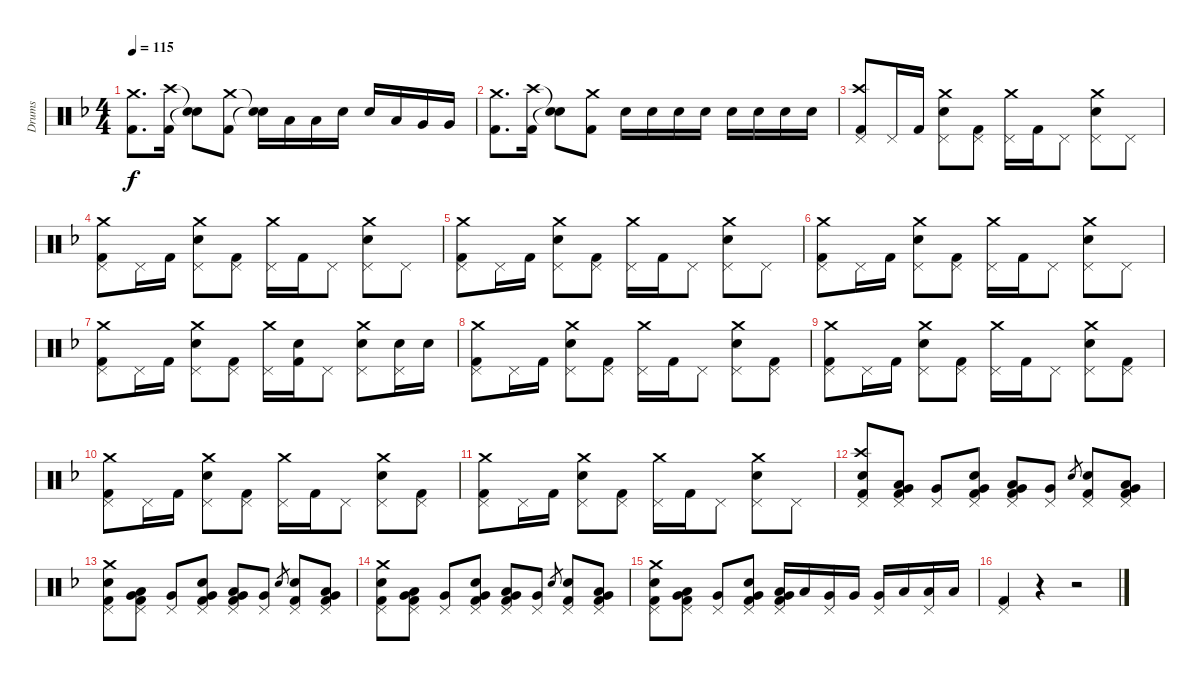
\track ("Drums" "Drums") {instrument percussion}
\staff {score}
\articulation defaults
\ts (4 4)
\tempo 115
\clef neutral
\ks dminor
("Crash medium (hit)" "Kick (hit) 2").8{d dy f} ("Crash high (hit)" "Kick (hit) 2").16 ("Snare (hit)"{t} "Snare (hit)"{t}).8 ("Crash medium (hit)" "Kick (hit) 2").8 ("Snare (hit)"{t} "Snare (hit)"{t}).16 "Low Tom (hit)".16 "Low Tom (hit)".16 "Electric Snare (hit)".16 "Electric Snare (hit)".16 "Low Tom (hit)".16 "Very Low Tom (hit)".16 "Very Low Tom (hit)".16 |
("Crash medium (hit)" "Kick (hit) 2").8{d} ("Crash high (hit)" "Kick (hit) 2").16 ("Snare (hit)"{t} "Snare (hit)"{t}).8 ("Crash medium (hit)" "Kick (hit) 2").8 "Electric Snare (hit)".16 "Electric Snare (hit)".16 "Electric Snare (hit)".16 "Electric Snare (hit)".16 "Electric Snare (hit)".16 "Electric Snare (hit)".16 "Electric Snare (hit)".16 "Electric Snare (hit)".16 |
("Crash high (hit)" "Pedal Hi-Hat (hit)" "Kick (hit) 2").8 "Pedal Hi-Hat (hit)".16 "Kick (hit) 2".16 ("Crash medium (hit)" "Electric Snare (hit)" "Pedal Hi-Hat (hit)").8 ("Pedal Hi-Hat (hit)" "Kick (hit) 2").8 ("Crash medium (hit)" "Pedal Hi-Hat (hit)").16 "Kick (hit) 2".16 "Pedal Hi-Hat (hit)".8 ("Crash medium (hit)" "Electric Snare (hit)" "Pedal Hi-Hat (hit)").8 "Pedal Hi-Hat (hit)".8 |
("Crash medium (hit)" "Pedal Hi-Hat (hit)" "Kick (hit) 2").8 "Pedal Hi-Hat (hit)".16 "Kick (hit) 2".16 ("Crash medium (hit)" "Electric Snare (hit)" "Pedal Hi-Hat (hit)").8 ("Pedal Hi-Hat (hit)" "Kick (hit) 2").8 ("Crash medium (hit)" "Pedal Hi-Hat (hit)").16 "Kick (hit) 2".16 "Pedal Hi-Hat (hit)".8 ("Crash medium (hit)" "Electric Snare (hit)" "Pedal Hi-Hat (hit)").8 "Pedal Hi-Hat (hit)".8 |
("Crash medium (hit)" "Pedal Hi-Hat (hit)" "Kick (hit) 2").8 "Pedal Hi-Hat (hit)".16 "Kick (hit) 2".16 ("Crash medium (hit)" "Electric Snare (hit)" "Pedal Hi-Hat (hit)").8 ("Pedal Hi-Hat (hit)" "Kick (hit) 2").8 ("Crash medium (hit)" "Pedal Hi-Hat (hit)").16 "Kick (hit) 2".16 "Pedal Hi-Hat (hit)".8 ("Crash medium (hit)" "Electric Snare (hit)" "Pedal Hi-Hat (hit)").8 "Pedal Hi-Hat (hit)".8 |
("Crash medium (hit)" "Pedal Hi-Hat (hit)" "Kick (hit) 2").8 "Pedal Hi-Hat (hit)".16 "Kick (hit) 2".16 ("Crash medium (hit)" "Electric Snare (hit)" "Pedal Hi-Hat (hit)").8 ("Pedal Hi-Hat (hit)" "Kick (hit) 2").8 ("Crash medium (hit)" "Pedal Hi-Hat (hit)").16 "Kick (hit) 2".16 "Pedal Hi-Hat (hit)".8 ("Crash medium (hit)" "Electric Snare (hit)" "Pedal Hi-Hat (hit)").8 "Pedal Hi-Hat (hit)".8 |
("Crash medium (hit)" "Pedal Hi-Hat (hit)" "Kick (hit) 2").8 "Pedal Hi-Hat (hit)".16 "Kick (hit) 2".16 ("Crash medium (hit)" "Electric Snare (hit)" "Pedal Hi-Hat (hit)").8 ("Pedal Hi-Hat (hit)" "Kick (hit) 2").8 ("Crash medium (hit)" "Pedal Hi-Hat (hit)").16 ("Electric Snare (hit)" "Kick (hit) 2").16 "Pedal Hi-Hat (hit)".8 ("Crash medium (hit)" "Electric Snare (hit)" "Pedal Hi-Hat (hit)").8 ("Electric Snare (hit)" "Pedal Hi-Hat (hit)").16 "Electric Snare (hit)".16 |
("Crash medium (hit)" "Pedal Hi-Hat (hit)" "Kick (hit) 2").8 "Pedal Hi-Hat (hit)".16 "Kick (hit) 2".16 ("Crash medium (hit)" "Electric Snare (hit)" "Pedal Hi-Hat (hit)").8 ("Pedal Hi-Hat (hit)" "Kick (hit) 2").8 ("Crash medium (hit)" "Pedal Hi-Hat (hit)").16 "Kick (hit) 2".16 "Pedal Hi-Hat (hit)".8 ("Crash medium (hit)" "Electric Snare (hit)" "Pedal Hi-Hat (hit)").8 ("Pedal Hi-Hat (hit)" "Kick (hit) 2").8 |
("Crash medium (hit)" "Pedal Hi-Hat (hit)" "Kick (hit) 2").8 "Pedal Hi-Hat (hit)".16 "Kick (hit) 2".16 ("Crash medium (hit)" "Electric Snare (hit)" "Pedal Hi-Hat (hit)").8 ("Pedal Hi-Hat (hit)" "Kick (hit) 2").8 ("Crash medium (hit)" "Pedal Hi-Hat (hit)").16 "Kick (hit) 2".16 "Pedal Hi-Hat (hit)".8 ("Crash medium (hit)" "Electric Snare (hit)" "Pedal Hi-Hat (hit)").8 ("Pedal Hi-Hat (hit)" "Kick (hit) 2").8 |
("Crash medium (hit)" "Pedal Hi-Hat (hit)" "Kick (hit) 2").8 "Pedal Hi-Hat (hit)".16 "Kick (hit) 2".16 ("Crash medium (hit)" "Electric Snare (hit)" "Pedal Hi-Hat (hit)").8 ("Pedal Hi-Hat (hit)" "Kick (hit) 2").8 ("Crash medium (hit)" "Pedal Hi-Hat (hit)").16 "Kick (hit) 2".16 "Pedal Hi-Hat (hit)".8 ("Crash medium (hit)" "Electric Snare (hit)" "Pedal Hi-Hat (hit)").8 ("Pedal Hi-Hat (hit)" "Kick (hit) 2").8 |
("Crash medium (hit)" "Pedal Hi-Hat (hit)" "Kick (hit) 2").8 "Pedal Hi-Hat (hit)".16 "Kick (hit) 2".16 ("Crash medium (hit)" "Electric Snare (hit)" "Pedal Hi-Hat (hit)").8 ("Pedal Hi-Hat (hit)" "Kick (hit) 2").8 ("Crash medium (hit)" "Pedal Hi-Hat (hit)").16 "Kick (hit) 2".16 "Pedal Hi-Hat (hit)".8 ("Crash medium (hit)" "Electric Snare (hit)" "Pedal Hi-Hat (hit)").8 "Pedal Hi-Hat (hit)".8 |
("Crash high (hit)" "Electric Snare (hit)" "Pedal Hi-Hat (hit)" "Kick (hit) 2").8 ("Low Tom (hit)" "Very Low Tom (hit)" "Pedal Hi-Hat (hit)" "Kick (hit) 2").8 ("Very Low Tom (hit)" "Pedal Hi-Hat (hit)").8 ("Electric Snare (hit)" "Very Low Tom (hit)" "Pedal Hi-Hat (hit)" "Kick (hit) 2").8 ("Low Tom (hit)" "Very Low Tom (hit)" "Pedal Hi-Hat (hit)" "Kick (hit) 2").8 ("Very Low Tom (hit)" "Pedal Hi-Hat (hit)").8 "Electric Snare (hit)".8{gr} ("Electric Snare (hit)" "Pedal Hi-Hat (hit)" "Kick (hit) 2").8 ("Low Tom (hit)" "Very Low Tom (hit)" "Pedal Hi-Hat (hit)" "Kick (hit) 2").8 |
("Crash medium (hit)" "Electric Snare (hit)" "Pedal Hi-Hat (hit)" "Kick (hit) 2").8 ("Low Tom (hit)" "Very Low Tom (hit)" "Pedal Hi-Hat (hit)" "Kick (hit) 2").8 ("Very Low Tom (hit)" "Pedal Hi-Hat (hit)").8 ("Electric Snare (hit)" "Very Low Tom (hit)" "Pedal Hi-Hat (hit)" "Kick (hit) 2").8 ("Low Tom (hit)" "Very Low Tom (hit)" "Pedal Hi-Hat (hit)" "Kick (hit) 2").8 ("Very Low Tom (hit)" "Pedal Hi-Hat (hit)").8 "Electric Snare (hit)".8{gr} ("Electric Snare (hit)" "Pedal Hi-Hat (hit)" "Kick (hit) 2").8 ("Low Tom (hit)" "Very Low Tom (hit)" "Pedal Hi-Hat (hit)" "Kick (hit) 2").8 |
("Crash medium (hit)" "Electric Snare (hit)" "Pedal Hi-Hat (hit)" "Kick (hit) 2").8 ("Low Tom (hit)" "Very Low Tom (hit)" "Pedal Hi-Hat (hit)" "Kick (hit) 2").8 ("Very Low Tom (hit)" "Pedal Hi-Hat (hit)").8 ("Electric Snare (hit)" "Very Low Tom (hit)" "Pedal Hi-Hat (hit)" "Kick (hit) 2").8 ("Low Tom (hit)" "Very Low Tom (hit)" "Pedal Hi-Hat (hit)" "Kick (hit) 2").8 ("Very Low Tom (hit)" "Pedal Hi-Hat (hit)").8 "Electric Snare (hit)".8{gr} ("Electric Snare (hit)" "Pedal Hi-Hat (hit)" "Kick (hit) 2").8 ("Low Tom (hit)" "Very Low Tom (hit)" "Pedal Hi-Hat (hit)" "Kick (hit) 2").8 |
("Crash medium (hit)" "Electric Snare (hit)" "Pedal Hi-Hat (hit)" "Kick (hit) 2").8 ("Low Tom (hit)" "Very Low Tom (hit)" "Pedal Hi-Hat (hit)" "Kick (hit) 2").8 ("Very Low Tom (hit)" "Pedal Hi-Hat (hit)").8 ("Electric Snare (hit)" "Very Low Tom (hit)" "Pedal Hi-Hat (hit)" "Kick (hit) 2").8 ("Low Tom (hit)" "Very Low Tom (hit)" "Pedal Hi-Hat (hit)" "Kick (hit) 2").16 "Low Tom (hit)".16 ("Very Low Tom (hit)" "Pedal Hi-Hat (hit)").16 "Very Low Tom (hit)".16 ("Very Low Tom (hit)" "Pedal Hi-Hat (hit)").16 "Low Floor Tom (hit)".16 ("Pedal Hi-Hat (hit)" "Low Floor Tom (hit)").16 "Low Floor Tom (hit)".16 |
("Pedal Hi-Hat (hit)" "Kick (hit) 2").4 r.4 r.2
